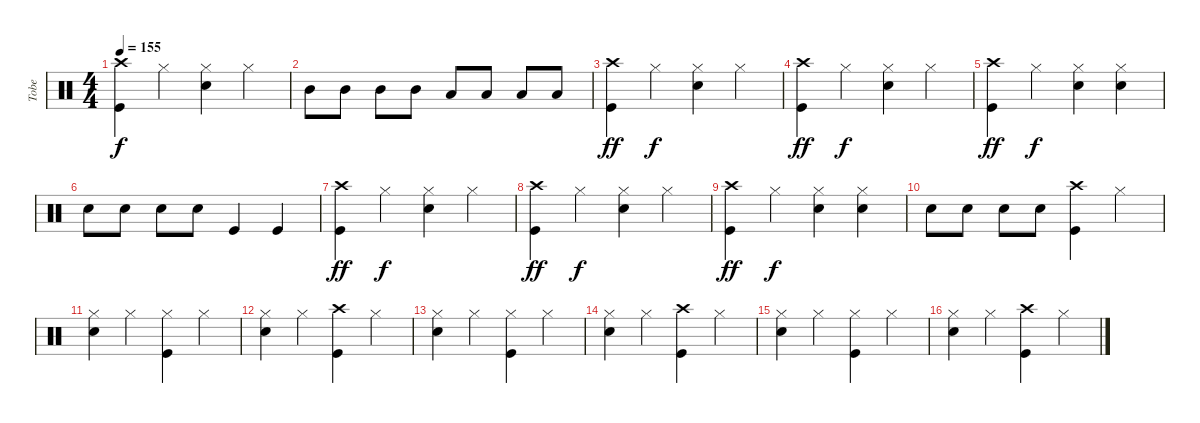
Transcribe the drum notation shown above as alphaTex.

\track ("Tobe" "Tobe") {instrument percussion}
\staff {score}
\articulation defaults
\ts (4 4)
\tempo 155
\clef neutral
\ks c
("Crash high (hit)" "Kick (hit)").4{dy f} "Hi-Hat (closed)".4 ("Hi-Hat (closed)" "Electric Snare (hit)").4 "Hi-Hat (closed)".4 |
"Mid Tom (hit)".8 "Mid Tom (hit)".8 "Mid Tom (hit)".8 "Mid Tom (hit)".8 "Low Tom (hit)".8 "Low Tom (hit)".8 "Low Tom (hit)".8 "Low Tom (hit)".8 |
("Crash high (hit)" "Kick (hit)").4{dy ff} "Hi-Hat (closed)".4{dy f} ("Hi-Hat (closed)" "Electric Snare (hit)").4 "Hi-Hat (closed)".4 |
("Crash high (hit)" "Kick (hit)").4{dy ff} "Hi-Hat (closed)".4{dy f} ("Hi-Hat (closed)" "Electric Snare (hit)").4 "Hi-Hat (closed)".4 |
("Crash high (hit)" "Kick (hit)").4{dy ff} "Hi-Hat (closed)".4{dy f} ("Hi-Hat (closed)" "Electric Snare (hit)").4 ("Hi-Hat (closed)" "Electric Snare (hit)").4 |
"Electric Snare (hit)".8 "Electric Snare (hit)".8 "Electric Snare (hit)".8 "Electric Snare (hit)".8 "Kick (hit)".4 "Kick (hit)".4 |
("Crash high (hit)" "Kick (hit)").4{dy ff} "Hi-Hat (closed)".4{dy f} ("Hi-Hat (closed)" "Electric Snare (hit)").4 "Hi-Hat (closed)".4 |
("Crash high (hit)" "Kick (hit)").4{dy ff} "Hi-Hat (closed)".4{dy f} ("Hi-Hat (closed)" "Electric Snare (hit)").4 "Hi-Hat (closed)".4 |
("Crash high (hit)" "Kick (hit)").4{dy ff} "Hi-Hat (closed)".4{dy f} ("Hi-Hat (closed)" "Electric Snare (hit)").4 ("Hi-Hat (closed)" "Electric Snare (hit)").4 |
"Electric Snare (hit)".8 "Electric Snare (hit)".8 "Electric Snare (hit)".8 "Electric Snare (hit)".8 ("Crash high (hit)" "Kick (hit)").4 "Hi-Hat (closed)".4 |
("Hi-Hat (closed)" "Electric Snare (hit)").4 "Hi-Hat (closed)".4 ("Hi-Hat (closed)" "Kick (hit)").4 "Hi-Hat (closed)".4 |
("Hi-Hat (closed)" "Electric Snare (hit)").4 "Hi-Hat (closed)".4 ("Crash high (hit)" "Kick (hit)").4 "Hi-Hat (closed)".4 |
("Hi-Hat (closed)" "Electric Snare (hit)").4 "Hi-Hat (closed)".4 ("Hi-Hat (closed)" "Kick (hit)").4 "Hi-Hat (closed)".4 |
("Hi-Hat (closed)" "Electric Snare (hit)").4 "Hi-Hat (closed)".4 ("Crash high (hit)" "Kick (hit)").4 "Hi-Hat (closed)".4 |
("Hi-Hat (closed)" "Electric Snare (hit)").4 "Hi-Hat (closed)".4 ("Hi-Hat (closed)" "Kick (hit)").4 "Hi-Hat (closed)".4 |
("Hi-Hat (closed)" "Electric Snare (hit)").4 "Hi-Hat (closed)".4 ("Crash high (hit)" "Kick (hit)").4 "Hi-Hat (closed)".4
